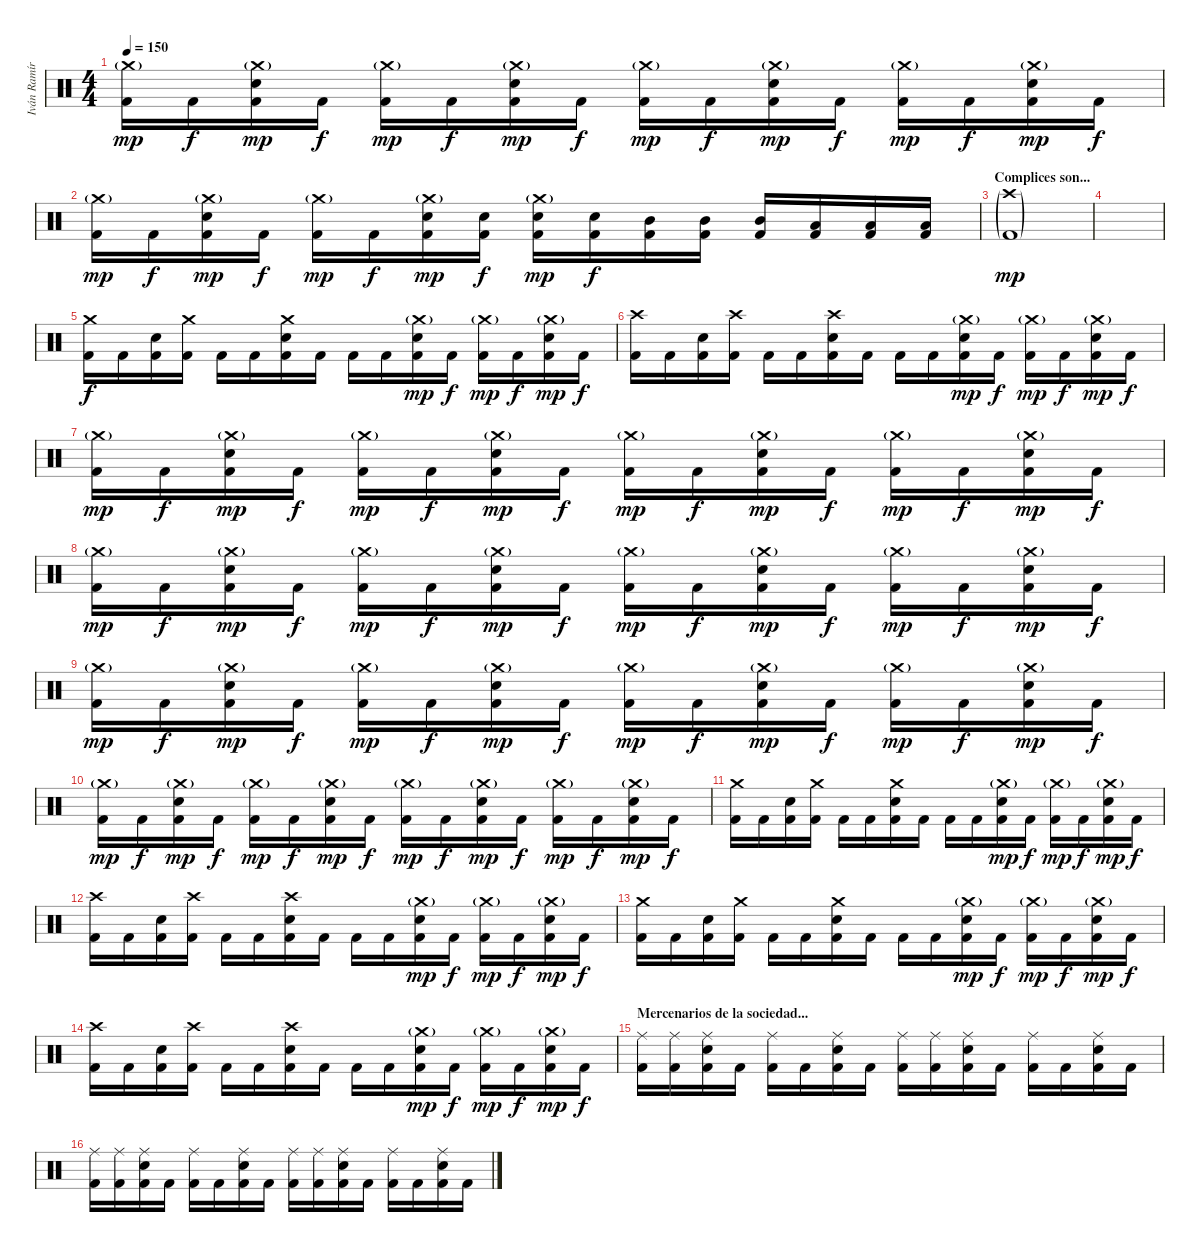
\track ("Iván Ramírez" "Iván Ramír") {instrument percussion}
\staff {score}
\articulation defaults
\ts (4 4)
\tempo 150
\clef neutral
\ks c
("Crash medium (hit)"{g} "Kick (hit) 2").16{dy mp} "Kick (hit) 2".16{dy f} ("Crash medium (hit)"{g} "Electric Snare (hit)" "Kick (hit) 2").16{dy mp} "Kick (hit) 2".16{dy f} ("Crash medium (hit)"{g} "Kick (hit) 2").16{dy mp} "Kick (hit) 2".16{dy f} ("Crash medium (hit)"{g} "Electric Snare (hit)" "Kick (hit) 2").16{dy mp} "Kick (hit) 2".16{dy f} ("Crash medium (hit)"{g} "Kick (hit) 2").16{dy mp} "Kick (hit) 2".16{dy f} ("Crash medium (hit)"{g} "Electric Snare (hit)" "Kick (hit) 2").16{dy mp} "Kick (hit) 2".16{dy f} ("Crash medium (hit)"{g} "Kick (hit) 2").16{dy mp} "Kick (hit) 2".16{dy f} ("Crash medium (hit)"{g} "Electric Snare (hit)" "Kick (hit) 2").16{dy mp} "Kick (hit) 2".16{dy f} |
("Crash medium (hit)"{g} "Kick (hit) 2").16{dy mp} "Kick (hit) 2".16{dy f} ("Crash medium (hit)"{g} "Electric Snare (hit)" "Kick (hit) 2").16{dy mp} "Kick (hit) 2".16{dy f} ("Crash medium (hit)"{g} "Kick (hit) 2").16{dy mp} "Kick (hit) 2".16{dy f} ("Crash medium (hit)"{g} "Electric Snare (hit)" "Kick (hit) 2").16{dy mp} ("Electric Snare (hit)" "Kick (hit) 2").16{dy f} ("Crash medium (hit)"{g} "Electric Snare (hit)" "Kick (hit) 2").16{dy mp} ("Electric Snare (hit)" "Kick (hit) 2").16{dy f} ("Mid Tom (hit)" "Kick (hit) 2").16 ("Mid Tom (hit)" "Kick (hit) 2").16 ("Mid Tom (hit)" "Kick (hit) 2").16 ("Low Tom (hit)" "Kick (hit) 2").16 ("Low Tom (hit)" "Kick (hit) 2").16 ("Low Tom (hit)" "Kick (hit) 2").16 |
\section ("" "Complices son...")
("Crash high (hit)"{g} "Kick (hit) 2"{g}).1{dy mp} |
|
("Crash medium (hit)" "Kick (hit) 2").16{dy f} "Kick (hit) 2".16 ("Electric Snare (hit)" "Kick (hit) 2").16 ("Crash medium (hit)" "Kick (hit) 2").16 "Kick (hit) 2".16 "Kick (hit) 2".16 ("Crash medium (hit)" "Electric Snare (hit)" "Kick (hit) 2").16 "Kick (hit) 2".16 "Kick (hit) 2".16 "Kick (hit) 2".16 ("Crash medium (hit)"{g} "Electric Snare (hit)" "Kick (hit) 2").16{dy mp} "Kick (hit) 2".16{dy f} ("Crash medium (hit)"{g} "Kick (hit) 2").16{dy mp} "Kick (hit) 2".16{dy f} ("Crash medium (hit)"{g} "Electric Snare (hit)" "Kick (hit) 2").16{dy mp} "Kick (hit) 2".16{dy f} |
("Crash high (hit)" "Kick (hit) 2").16 "Kick (hit) 2".16 ("Electric Snare (hit)" "Kick (hit) 2").16 ("Crash high (hit)" "Kick (hit) 2").16 "Kick (hit) 2".16 "Kick (hit) 2".16 ("Crash high (hit)" "Electric Snare (hit)" "Kick (hit) 2").16 "Kick (hit) 2".16 "Kick (hit) 2".16 "Kick (hit) 2".16 ("Crash medium (hit)"{g} "Electric Snare (hit)" "Kick (hit) 2").16{dy mp} "Kick (hit) 2".16{dy f} ("Crash medium (hit)"{g} "Kick (hit) 2").16{dy mp} "Kick (hit) 2".16{dy f} ("Crash medium (hit)"{g} "Electric Snare (hit)" "Kick (hit) 2").16{dy mp} "Kick (hit) 2".16{dy f} |
("Crash medium (hit)"{g} "Kick (hit) 2").16{dy mp} "Kick (hit) 2".16{dy f} ("Crash medium (hit)"{g} "Electric Snare (hit)" "Kick (hit) 2").16{dy mp} "Kick (hit) 2".16{dy f} ("Crash medium (hit)"{g} "Kick (hit) 2").16{dy mp} "Kick (hit) 2".16{dy f} ("Crash medium (hit)"{g} "Electric Snare (hit)" "Kick (hit) 2").16{dy mp} "Kick (hit) 2".16{dy f} ("Crash medium (hit)"{g} "Kick (hit) 2").16{dy mp} "Kick (hit) 2".16{dy f} ("Crash medium (hit)"{g} "Electric Snare (hit)" "Kick (hit) 2").16{dy mp} "Kick (hit) 2".16{dy f} ("Crash medium (hit)"{g} "Kick (hit) 2").16{dy mp} "Kick (hit) 2".16{dy f} ("Crash medium (hit)"{g} "Electric Snare (hit)" "Kick (hit) 2").16{dy mp} "Kick (hit) 2".16{dy f} |
("Crash medium (hit)"{g} "Kick (hit) 2").16{dy mp} "Kick (hit) 2".16{dy f} ("Crash medium (hit)"{g} "Electric Snare (hit)" "Kick (hit) 2").16{dy mp} "Kick (hit) 2".16{dy f} ("Crash medium (hit)"{g} "Kick (hit) 2").16{dy mp} "Kick (hit) 2".16{dy f} ("Crash medium (hit)"{g} "Electric Snare (hit)" "Kick (hit) 2").16{dy mp} "Kick (hit) 2".16{dy f} ("Crash medium (hit)"{g} "Kick (hit) 2").16{dy mp} "Kick (hit) 2".16{dy f} ("Crash medium (hit)"{g} "Electric Snare (hit)" "Kick (hit) 2").16{dy mp} "Kick (hit) 2".16{dy f} ("Crash medium (hit)"{g} "Kick (hit) 2").16{dy mp} "Kick (hit) 2".16{dy f} ("Crash medium (hit)"{g} "Electric Snare (hit)" "Kick (hit) 2").16{dy mp} "Kick (hit) 2".16{dy f} |
("Crash medium (hit)"{g} "Kick (hit) 2").16{dy mp} "Kick (hit) 2".16{dy f} ("Crash medium (hit)"{g} "Electric Snare (hit)" "Kick (hit) 2").16{dy mp} "Kick (hit) 2".16{dy f} ("Crash medium (hit)"{g} "Kick (hit) 2").16{dy mp} "Kick (hit) 2".16{dy f} ("Crash medium (hit)"{g} "Electric Snare (hit)" "Kick (hit) 2").16{dy mp} "Kick (hit) 2".16{dy f} ("Crash medium (hit)"{g} "Kick (hit) 2").16{dy mp} "Kick (hit) 2".16{dy f} ("Crash medium (hit)"{g} "Electric Snare (hit)" "Kick (hit) 2").16{dy mp} "Kick (hit) 2".16{dy f} ("Crash medium (hit)"{g} "Kick (hit) 2").16{dy mp} "Kick (hit) 2".16{dy f} ("Crash medium (hit)"{g} "Electric Snare (hit)" "Kick (hit) 2").16{dy mp} "Kick (hit) 2".16{dy f} |
("Crash medium (hit)"{g} "Kick (hit) 2").16{dy mp} "Kick (hit) 2".16{dy f} ("Crash medium (hit)"{g} "Electric Snare (hit)" "Kick (hit) 2").16{dy mp} "Kick (hit) 2".16{dy f} ("Crash medium (hit)"{g} "Kick (hit) 2").16{dy mp} "Kick (hit) 2".16{dy f} ("Crash medium (hit)"{g} "Electric Snare (hit)" "Kick (hit) 2").16{dy mp} "Kick (hit) 2".16{dy f} ("Crash medium (hit)"{g} "Kick (hit) 2").16{dy mp} "Kick (hit) 2".16{dy f} ("Crash medium (hit)"{g} "Electric Snare (hit)" "Kick (hit) 2").16{dy mp} "Kick (hit) 2".16{dy f} ("Crash medium (hit)"{g} "Kick (hit) 2").16{dy mp} "Kick (hit) 2".16{dy f} ("Crash medium (hit)"{g} "Electric Snare (hit)" "Kick (hit) 2").16{dy mp} "Kick (hit) 2".16{dy f} |
("Crash medium (hit)" "Kick (hit) 2").16 "Kick (hit) 2".16 ("Electric Snare (hit)" "Kick (hit) 2").16 ("Crash medium (hit)" "Kick (hit) 2").16 "Kick (hit) 2".16 "Kick (hit) 2".16 ("Crash medium (hit)" "Electric Snare (hit)" "Kick (hit) 2").16 "Kick (hit) 2".16 "Kick (hit) 2".16 "Kick (hit) 2".16 ("Crash medium (hit)"{g} "Electric Snare (hit)" "Kick (hit) 2").16{dy mp} "Kick (hit) 2".16{dy f} ("Crash medium (hit)"{g} "Kick (hit) 2").16{dy mp} "Kick (hit) 2".16{dy f} ("Crash medium (hit)"{g} "Electric Snare (hit)" "Kick (hit) 2").16{dy mp} "Kick (hit) 2".16{dy f} |
("Crash high (hit)" "Kick (hit) 2").16 "Kick (hit) 2".16 ("Electric Snare (hit)" "Kick (hit) 2").16 ("Crash high (hit)" "Kick (hit) 2").16 "Kick (hit) 2".16 "Kick (hit) 2".16 ("Crash high (hit)" "Electric Snare (hit)" "Kick (hit) 2").16 "Kick (hit) 2".16 "Kick (hit) 2".16 "Kick (hit) 2".16 ("Crash medium (hit)"{g} "Electric Snare (hit)" "Kick (hit) 2").16{dy mp} "Kick (hit) 2".16{dy f} ("Crash medium (hit)"{g} "Kick (hit) 2").16{dy mp} "Kick (hit) 2".16{dy f} ("Crash medium (hit)"{g} "Electric Snare (hit)" "Kick (hit) 2").16{dy mp} "Kick (hit) 2".16{dy f} |
("Crash medium (hit)" "Kick (hit) 2").16 "Kick (hit) 2".16 ("Electric Snare (hit)" "Kick (hit) 2").16 ("Crash medium (hit)" "Kick (hit) 2").16 "Kick (hit) 2".16 "Kick (hit) 2".16 ("Crash medium (hit)" "Electric Snare (hit)" "Kick (hit) 2").16 "Kick (hit) 2".16 "Kick (hit) 2".16 "Kick (hit) 2".16 ("Crash medium (hit)"{g} "Electric Snare (hit)" "Kick (hit) 2").16{dy mp} "Kick (hit) 2".16{dy f} ("Crash medium (hit)"{g} "Kick (hit) 2").16{dy mp} "Kick (hit) 2".16{dy f} ("Crash medium (hit)"{g} "Electric Snare (hit)" "Kick (hit) 2").16{dy mp} "Kick (hit) 2".16{dy f} |
("Crash high (hit)" "Kick (hit) 2").16 "Kick (hit) 2".16 ("Electric Snare (hit)" "Kick (hit) 2").16 ("Crash high (hit)" "Kick (hit) 2").16 "Kick (hit) 2".16 "Kick (hit) 2".16 ("Crash high (hit)" "Electric Snare (hit)" "Kick (hit) 2").16 "Kick (hit) 2".16 "Kick (hit) 2".16 "Kick (hit) 2".16 ("Crash medium (hit)"{g} "Electric Snare (hit)" "Kick (hit) 2").16{dy mp} "Kick (hit) 2".16{dy f} ("Crash medium (hit)"{g} "Kick (hit) 2").16{dy mp} "Kick (hit) 2".16{dy f} ("Crash medium (hit)"{g} "Electric Snare (hit)" "Kick (hit) 2").16{dy mp} "Kick (hit) 2".16{dy f} |
\section ("" "Mercenarios de la sociedad...")
("Ride (middle)" "Kick (hit) 2").16 ("Ride (middle)" "Kick (hit) 2").16 ("Ride (middle)" "Electric Snare (hit)" "Kick (hit) 2").16 "Kick (hit) 2".16 ("Ride (middle)" "Kick (hit) 2").16 "Kick (hit) 2".16 ("Ride (middle)" "Electric Snare (hit)" "Kick (hit) 2").16 "Kick (hit) 2".16 ("Ride (middle)" "Kick (hit) 2").16 ("Ride (middle)" "Kick (hit) 2").16 ("Ride (middle)" "Electric Snare (hit)" "Kick (hit) 2").16 "Kick (hit) 2".16 ("Ride (middle)" "Kick (hit) 2").16 "Kick (hit) 2".16 ("Ride (middle)" "Electric Snare (hit)" "Kick (hit) 2").16 "Kick (hit) 2".16 |
("Ride (middle)" "Kick (hit) 2").16 ("Ride (middle)" "Kick (hit) 2").16 ("Ride (middle)" "Electric Snare (hit)" "Kick (hit) 2").16 "Kick (hit) 2".16 ("Ride (middle)" "Kick (hit) 2").16 "Kick (hit) 2".16 ("Ride (middle)" "Electric Snare (hit)" "Kick (hit) 2").16 "Kick (hit) 2".16 ("Ride (middle)" "Kick (hit) 2").16 ("Ride (middle)" "Kick (hit) 2").16 ("Ride (middle)" "Electric Snare (hit)" "Kick (hit) 2").16 "Kick (hit) 2".16 ("Ride (middle)" "Kick (hit) 2").16 "Kick (hit) 2".16 ("Ride (middle)" "Electric Snare (hit)" "Kick (hit) 2").16 "Kick (hit) 2".16
